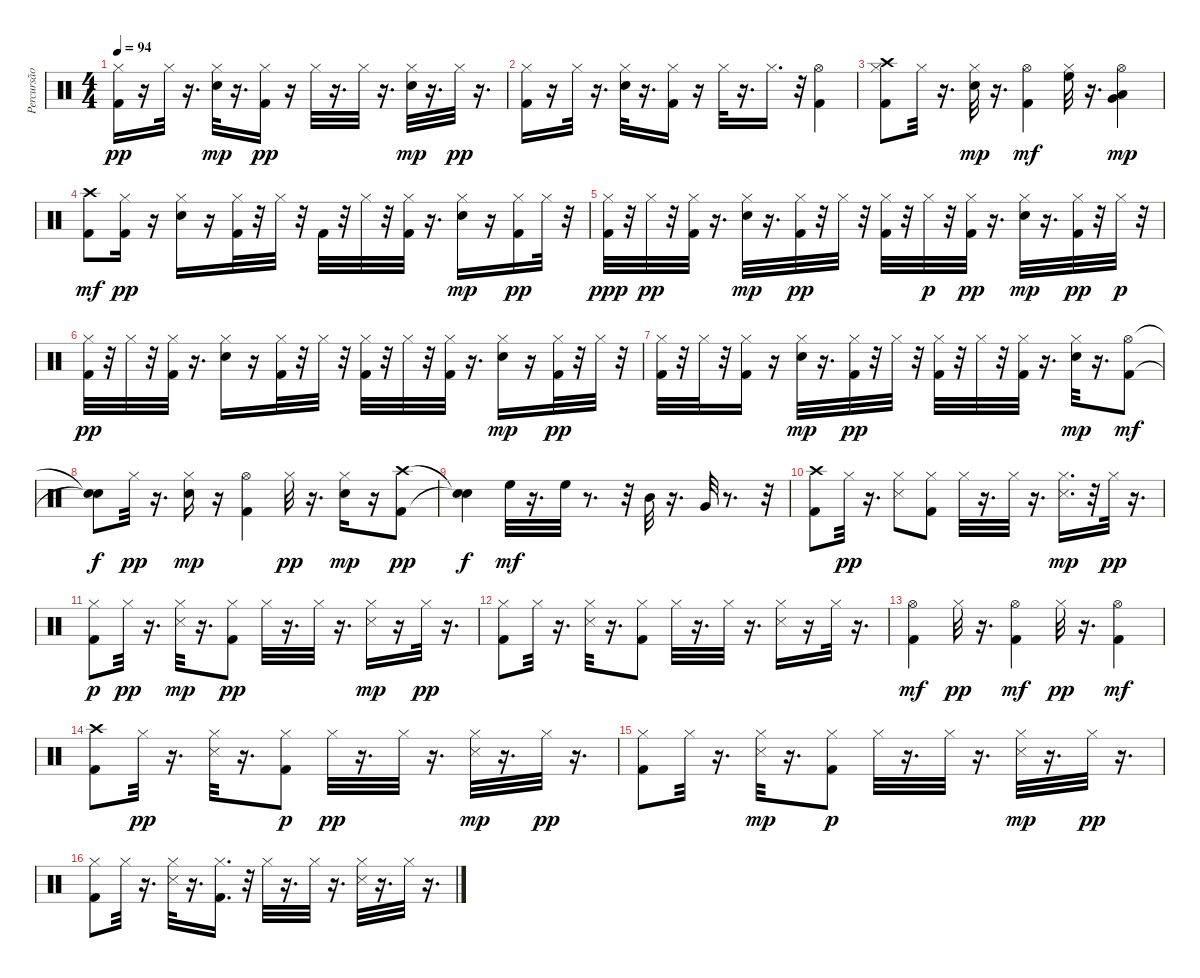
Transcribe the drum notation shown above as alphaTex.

\track ("Percursão" "Percursão") {instrument percussion}
\staff {score}
\articulation defaults
\ts (4 4)
\tempo 94
\clef neutral
\ks c
("Kick (hit) 2" "Hi-Hat (closed)").16{dy pp} r.16 "Hi-Hat (closed)".32 r.16{d} ("Hi-Hat (closed)" "Snare (hit) 2").32{dy mp} r.16{d} ("Kick (hit) 2" "Hi-Hat (closed)").16{dy pp} r.16 "Hi-Hat (closed)".32 r.16{d} "Hi-Hat (closed)".32 r.16{d} ("Hi-Hat (closed)" "Snare (hit) 2").32{dy mp} r.16{d} "Hi-Hat (closed)".32{dy pp} r.16{d} |
("Kick (hit) 2" "Hi-Hat (closed)").16 r.16 "Hi-Hat (closed)".32 r.16{d} ("Snare (hit) 2" "Hi-Hat (closed)").32 r.16{d} ("Kick (hit) 2" "Hi-Hat (closed)").16 r.16 "Hi-Hat (closed)".32 r.16{d} "Hi-Hat (closed)".16{d} r.32 ("Hi-Hat (open)" "Kick (hit) 2").4 |
("Kick (hit) 2" "Crash high (hit)" "Hi-Hat (closed)").8 "Hi-Hat (closed)".32 r.16{d} ("Hi-Hat (closed)" "Snare (hit) 2").32{dy mp} r.16{d} ("Kick (hit) 2" "Hi-Hat (open)").4{dy mf} ("Hi-Hat (closed)" "High Floor Tom (hit)").32 r.16{d} ("Very Low Tom (hit)" "Hi-Hat (open)" "Low Floor Tom (hit)").4{dy mp} |
("Kick (hit) 2" "Crash high (hit)").8{dy mf} ("Kick (hit) 2" "Hi-Hat (closed)").16{dy pp} r.16 ("Snare (hit) 2" "Hi-Hat (closed)").16 r.16 ("Kick (hit) 2" "Hi-Hat (closed)").32 r.32 "Hi-Hat (closed)".32 r.32 "Kick (hit) 2".32 r.32 "Hi-Hat (closed)".32 r.32 ("Kick (hit) 2" "Hi-Hat (closed)").32 r.16{d} ("Hi-Hat (closed)" "Snare (hit) 2").16{dy mp} r.16 ("Kick (hit) 2" "Hi-Hat (closed)").16{dy pp} "Hi-Hat (closed)".32 r.32 |
("Kick (hit) 2" "Hi-Hat (closed)").32{dy ppp} r.32 "Hi-Hat (closed)".32{dy pp} r.32 ("Kick (hit) 2" "Hi-Hat (closed)").32 r.16{d} ("Hi-Hat (closed)" "Snare (hit) 2").32{dy mp} r.16{d} ("Kick (hit) 2" "Hi-Hat (closed)").32{dy pp} r.32 "Hi-Hat (closed)".32 r.32 ("Kick (hit) 2" "Hi-Hat (closed)").32 r.32 "Hi-Hat (closed)".32{dy p} r.32 ("Kick (hit) 2" "Hi-Hat (closed)").32{dy pp} r.16{d} ("Hi-Hat (closed)" "Snare (hit) 2").32{dy mp} r.16{d} ("Kick (hit) 2" "Hi-Hat (closed)").32{dy pp} r.32 "Hi-Hat (closed)".32{dy p} r.32 |
("Kick (hit) 2" "Hi-Hat (closed)").32{dy pp} r.32 "Hi-Hat (closed)".32 r.32 ("Kick (hit) 2" "Hi-Hat (closed)").32 r.16{d} ("Snare (hit) 2" "Hi-Hat (closed)").16 r.16 ("Kick (hit) 2" "Hi-Hat (closed)").32 r.32 "Hi-Hat (closed)".32 r.32 ("Kick (hit) 2" "Hi-Hat (closed)").32 r.32 "Hi-Hat (closed)".32 r.32 ("Kick (hit) 2" "Hi-Hat (closed)").32 r.16{d} ("Hi-Hat (closed)" "Snare (hit) 2").16{dy mp} r.16 ("Hi-Hat (closed)" "Kick (hit) 2").32{dy pp} r.32 "Hi-Hat (closed)".32 r.32 |
("Kick (hit) 2" "Hi-Hat (closed)").32 r.32 "Hi-Hat (closed)".32 r.32 ("Kick (hit) 2" "Hi-Hat (closed)").16 r.16 ("Hi-Hat (closed)" "Snare (hit) 2").32{dy mp} r.16{d} ("Kick (hit) 2" "Hi-Hat (closed)").32{dy pp} r.32 "Hi-Hat (closed)".32 r.32 ("Kick (hit) 2" "Hi-Hat (closed)").32 r.32 "Hi-Hat (closed)".32 r.32 ("Kick (hit) 2" "Hi-Hat (closed)").32 r.16{d} ("Hi-Hat (closed)" "Snare (hit) 2").32{dy mp} r.16{d} ("Kick (hit) 2" "Hi-Hat (open)").8{dy mf} |
("Snare (hit)"{t} "Snare (hit)"{t}).8{dy f} "Hi-Hat (closed)".32{dy pp} r.16{d} ("Hi-Hat (closed)" "Snare (hit) 2").16{dy mp} r.16 ("Kick (hit) 2" "Hi-Hat (open)").4 "Hi-Hat (closed)".32{dy pp} r.16{d} ("Hi-Hat (closed)" "Snare (hit) 2").16{dy mp} r.16 ("Crash high (hit)" "Kick (hit) 2").8{dy pp} |
("Snare (hit)"{t} "Snare (hit)"{t}).4{dy f} "High Floor Tom (hit)".32{dy mf} r.16{d} "High Floor Tom (hit)".32 r.8{d} r.32 "Mid Tom (hit)".32 r.16{d} "Very Low Tom (hit)".32 r.8{d} r.32 |
("Kick (hit) 2" "Crash high (hit)").8 "Hi-Hat (closed)".32{dy pp} r.16{d} ("Snare (side stick) 3" "Hi-Hat (closed)").8 ("Kick (hit) 2" "Hi-Hat (closed)").8 "Hi-Hat (closed)".32 r.16{d} "Hi-Hat (closed)".32 r.16{d} ("Hi-Hat (closed)" "Snare (side stick) 3").16{d dy mp} r.32 "Hi-Hat (closed)".32{dy pp} r.16{d} |
("Kick (hit) 2" "Hi-Hat (closed)").8{dy p} "Hi-Hat (closed)".32{dy pp} r.16{d} ("Hi-Hat (closed)" "Snare (side stick) 3").32{dy mp} r.16{d} ("Kick (hit) 2" "Hi-Hat (closed)").8{dy pp} "Hi-Hat (closed)".32 r.16{d} "Hi-Hat (closed)".32 r.16{d} ("Hi-Hat (closed)" "Snare (side stick) 3").16{dy mp} r.16 "Hi-Hat (closed)".32{dy pp} r.16{d} |
("Kick (hit) 2" "Hi-Hat (closed)").8 "Hi-Hat (closed)".32 r.16{d} ("Snare (side stick) 3" "Hi-Hat (closed)").32 r.16{d} ("Hi-Hat (closed)" "Kick (hit) 2").8 "Hi-Hat (closed)".32 r.16{d} "Hi-Hat (closed)".32 r.16{d} ("Snare (side stick) 3" "Hi-Hat (closed)").16 r.16 "Hi-Hat (closed)".32 r.16{d} |
("Kick (hit) 2" "Hi-Hat (open)").4{dy mf} "Hi-Hat (closed)".32{dy pp} r.16{d} ("Kick (hit) 2" "Hi-Hat (open)").4{dy mf} "Hi-Hat (closed)".32{dy pp} r.16{d} ("Kick (hit) 2" "Hi-Hat (open)").4{dy mf} |
("Kick (hit) 2" "Crash high (hit)").8 "Hi-Hat (closed)".32{dy pp} r.16{d} ("Snare (side stick) 3" "Hi-Hat (closed)").32 r.16{d} ("Kick (hit) 2" "Hi-Hat (closed)").8{dy p} "Hi-Hat (closed)".32{dy pp} r.16{d} "Hi-Hat (closed)".32 r.16{d} ("Hi-Hat (closed)" "Snare (side stick) 3").32{dy mp} r.16{d} "Hi-Hat (closed)".32{dy pp} r.16{d} |
("Hi-Hat (closed)" "Kick (hit) 2").8 "Hi-Hat (closed)".32 r.16{d} ("Hi-Hat (closed)" "Snare (side stick) 3").32{dy mp} r.16{d} ("Kick (hit) 2" "Hi-Hat (closed)").8{dy p} "Hi-Hat (closed)".32 r.16{d} "Hi-Hat (closed)".32 r.16{d} ("Hi-Hat (closed)" "Snare (side stick) 3").32{dy mp} r.16{d} "Hi-Hat (closed)".32{dy pp} r.16{d} |
("Kick (hit) 2" "Hi-Hat (closed)").8 "Hi-Hat (closed)".32 r.16{d} ("Snare (side stick) 3" "Hi-Hat (closed)").32 r.16{d} ("Hi-Hat (closed)" "Kick (hit) 2").16{d} r.32 "Hi-Hat (closed)".32 r.16{d} "Hi-Hat (closed)".32 r.16{d} ("Snare (side stick) 3" "Hi-Hat (closed)").32 r.16{d} "Hi-Hat (closed)".32 r.16{d}
